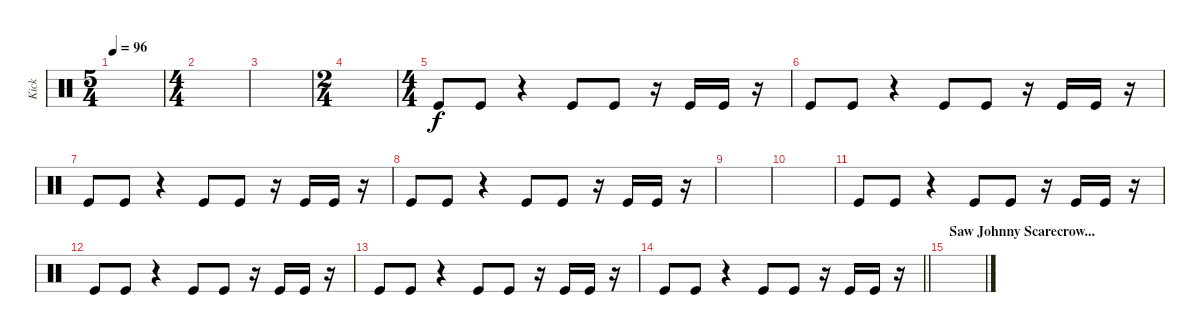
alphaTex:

\track ("Kick" "Kick") {instrument percussion}
\staff {score}
\articulation defaults
\ts (5 4)
\tempo 96
\clef neutral
\ks c
|
\ts (4 4)
|
|
\ts (2 4)
|
\ts (4 4)
"Kick (hit)".8 "Kick (hit)".8 r.4 "Kick (hit)".8 "Kick (hit)".8 r.16 "Kick (hit)".16 "Kick (hit)".16 r.16 |
"Kick (hit)".8 "Kick (hit)".8 r.4 "Kick (hit)".8 "Kick (hit)".8 r.16 "Kick (hit)".16 "Kick (hit)".16 r.16 |
"Kick (hit)".8 "Kick (hit)".8 r.4 "Kick (hit)".8 "Kick (hit)".8 r.16 "Kick (hit)".16 "Kick (hit)".16 r.16 |
"Kick (hit)".8 "Kick (hit)".8 r.4 "Kick (hit)".8 "Kick (hit)".8 r.16 "Kick (hit)".16 "Kick (hit)".16 r.16 |
|
|
"Kick (hit)".8 "Kick (hit)".8 r.4 "Kick (hit)".8 "Kick (hit)".8 r.16 "Kick (hit)".16 "Kick (hit)".16 r.16 |
"Kick (hit)".8 "Kick (hit)".8 r.4 "Kick (hit)".8 "Kick (hit)".8 r.16 "Kick (hit)".16 "Kick (hit)".16 r.16 |
"Kick (hit)".8 "Kick (hit)".8 r.4 "Kick (hit)".8 "Kick (hit)".8 r.16 "Kick (hit)".16 "Kick (hit)".16 r.16 |
\barLineRight lightlight "Kick (hit)".8 "Kick (hit)".8
r.4 "Kick (hit)".8 "Kick (hit)".8 r.16 "Kick (hit)".16 "Kick (hit)".16 r.16 |
\section ("" "Saw Johnny Scarecrow...")
